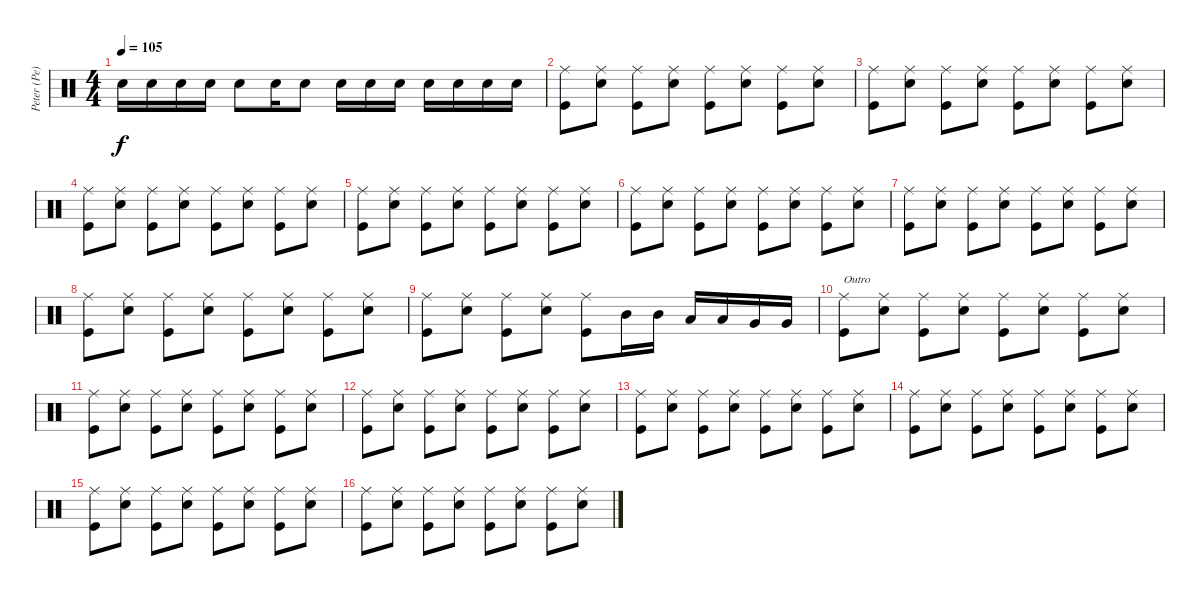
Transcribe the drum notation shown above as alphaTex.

\track ("Peter (Pe) Schorowsky" "Peter (Pe)") {instrument percussion}
\staff {score}
\articulation defaults
\ts (4 4)
\tempo 105
\clef neutral
\ks c "Snare (hit) 2".16{dy f} "Snare (hit) 2".16 "Snare (hit) 2".16 "Snare (hit) 2".16 "Snare (hit) 2".8 "Snare (hit) 2".16 "Snare (hit) 2".8 "Snare (hit) 2".16 "Snare (hit) 2".16 "Snare (hit) 2".16 "Snare (hit) 2".16 "Snare (hit) 2".16 "Snare (hit) 2".16 "Snare (hit) 2".16
|
("Ride (middle)" "Kick (hit)").8 ("Ride (middle)" "Snare (hit) 2").8 ("Ride (middle)" "Kick (hit)").8 ("Ride (middle)" "Snare (hit) 2").8 ("Ride (middle)" "Kick (hit)").8 ("Ride (middle)" "Snare (hit) 2").8 ("Ride (middle)" "Kick (hit)").8 ("Ride (middle)" "Snare (hit) 2").8 |
("Ride (middle)" "Kick (hit)").8 ("Ride (middle)" "Snare (hit) 2").8 ("Ride (middle)" "Kick (hit)").8 ("Ride (middle)" "Snare (hit) 2").8 ("Ride (middle)" "Kick (hit)").8 ("Ride (middle)" "Snare (hit) 2").8 ("Ride (middle)" "Kick (hit)").8 ("Ride (middle)" "Snare (hit) 2").8 |
("Ride (middle)" "Kick (hit)").8 ("Ride (middle)" "Snare (hit) 2").8 ("Ride (middle)" "Kick (hit)").8 ("Ride (middle)" "Snare (hit) 2").8 ("Ride (middle)" "Kick (hit)").8 ("Ride (middle)" "Snare (hit) 2").8 ("Ride (middle)" "Kick (hit)").8 ("Ride (middle)" "Snare (hit) 2").8 |
("Ride (middle)" "Kick (hit)").8 ("Ride (middle)" "Snare (hit) 2").8 ("Ride (middle)" "Kick (hit)").8 ("Ride (middle)" "Snare (hit) 2").8 ("Ride (middle)" "Kick (hit)").8 ("Ride (middle)" "Snare (hit) 2").8 ("Ride (middle)" "Kick (hit)").8 ("Ride (middle)" "Snare (hit) 2").8 |
("Ride (middle)" "Kick (hit)").8 ("Ride (middle)" "Snare (hit) 2").8 ("Ride (middle)" "Kick (hit)").8 ("Ride (middle)" "Snare (hit) 2").8 ("Ride (middle)" "Kick (hit)").8 ("Ride (middle)" "Snare (hit) 2").8 ("Ride (middle)" "Kick (hit)").8 ("Ride (middle)" "Snare (hit) 2").8 |
("Ride (middle)" "Kick (hit)").8 ("Ride (middle)" "Snare (hit) 2").8 ("Ride (middle)" "Kick (hit)").8 ("Ride (middle)" "Snare (hit) 2").8 ("Ride (middle)" "Kick (hit)").8 ("Ride (middle)" "Snare (hit) 2").8 ("Ride (middle)" "Kick (hit)").8 ("Ride (middle)" "Snare (hit) 2").8 |
("Ride (middle)" "Kick (hit)").8 ("Ride (middle)" "Snare (hit) 2").8 ("Ride (middle)" "Kick (hit)").8 ("Ride (middle)" "Snare (hit) 2").8 ("Ride (middle)" "Kick (hit)").8 ("Ride (middle)" "Snare (hit) 2").8 ("Ride (middle)" "Kick (hit)").8 ("Ride (middle)" "Snare (hit) 2").8 |
("Ride (middle)" "Kick (hit)").8 ("Ride (middle)" "Snare (hit) 2").8 ("Ride (middle)" "Kick (hit)").8 ("Ride (middle)" "Snare (hit) 2").8 ("Ride (middle)" "Kick (hit)").8 "Mid Tom (hit)".16 "Mid Tom (hit)".16 "Low Tom (hit)".16 "Low Tom (hit)".16 "Very Low Tom (hit)".16 "Very Low Tom (hit)".16 |
("Ride (middle)" "Kick (hit)").8{txt "Outro"} ("Ride (middle)" "Snare (hit) 2").8 ("Ride (middle)" "Kick (hit)").8 ("Ride (middle)" "Snare (hit) 2").8 ("Ride (middle)" "Kick (hit)").8 ("Ride (middle)" "Snare (hit) 2").8 ("Ride (middle)" "Kick (hit)").8 ("Ride (middle)" "Snare (hit) 2").8 |
("Ride (middle)" "Kick (hit)").8 ("Ride (middle)" "Snare (hit) 2").8 ("Ride (middle)" "Kick (hit)").8 ("Ride (middle)" "Snare (hit) 2").8 ("Ride (middle)" "Kick (hit)").8 ("Ride (middle)" "Snare (hit) 2").8 ("Ride (middle)" "Kick (hit)").8 ("Ride (middle)" "Snare (hit) 2").8 |
("Ride (middle)" "Kick (hit)").8 ("Ride (middle)" "Snare (hit) 2").8 ("Ride (middle)" "Kick (hit)").8 ("Ride (middle)" "Snare (hit) 2").8 ("Ride (middle)" "Kick (hit)").8 ("Ride (middle)" "Snare (hit) 2").8 ("Ride (middle)" "Kick (hit)").8 ("Ride (middle)" "Snare (hit) 2").8 |
("Ride (middle)" "Kick (hit)").8 ("Ride (middle)" "Snare (hit) 2").8 ("Ride (middle)" "Kick (hit)").8 ("Ride (middle)" "Snare (hit) 2").8 ("Ride (middle)" "Kick (hit)").8 ("Ride (middle)" "Snare (hit) 2").8 ("Ride (middle)" "Kick (hit)").8 ("Ride (middle)" "Snare (hit) 2").8 |
("Ride (middle)" "Kick (hit)").8 ("Ride (middle)" "Snare (hit) 2").8 ("Ride (middle)" "Kick (hit)").8 ("Ride (middle)" "Snare (hit) 2").8 ("Ride (middle)" "Kick (hit)").8 ("Ride (middle)" "Snare (hit) 2").8 ("Ride (middle)" "Kick (hit)").8 ("Ride (middle)" "Snare (hit) 2").8 |
("Ride (middle)" "Kick (hit)").8 ("Ride (middle)" "Snare (hit) 2").8 ("Ride (middle)" "Kick (hit)").8 ("Ride (middle)" "Snare (hit) 2").8 ("Ride (middle)" "Kick (hit)").8 ("Ride (middle)" "Snare (hit) 2").8 ("Ride (middle)" "Kick (hit)").8 ("Ride (middle)" "Snare (hit) 2").8 |
("Ride (middle)" "Kick (hit)").8 ("Ride (middle)" "Snare (hit) 2").8 ("Ride (middle)" "Kick (hit)").8 ("Ride (middle)" "Snare (hit) 2").8 ("Ride (middle)" "Kick (hit)").8 ("Ride (middle)" "Snare (hit) 2").8 ("Ride (middle)" "Kick (hit)").8 ("Ride (middle)" "Snare (hit) 2").8
